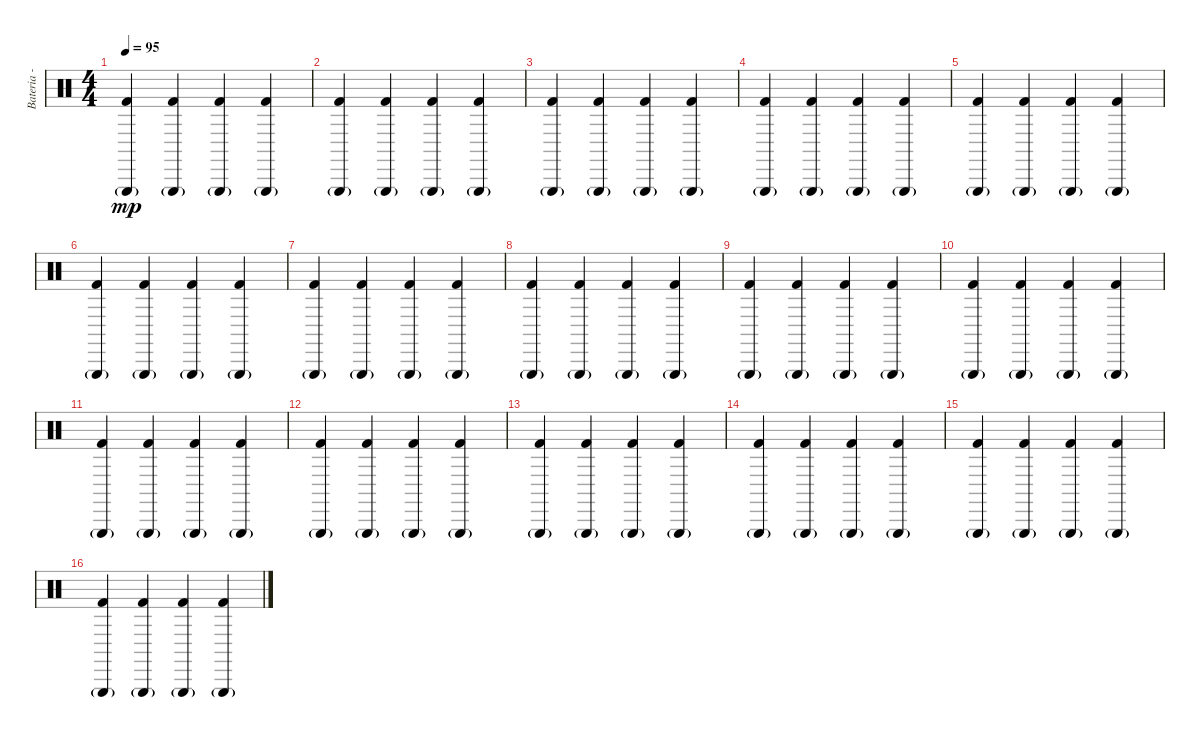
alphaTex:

\track ("Bateria - Alfonso André" "Bateria - ") {instrument percussion}
\staff {score}
\articulation defaults
\ts (4 4)
\tempo 95
\clef neutral
\ks c
("Triangle (hit)"{g} "Kick (hit) 2").4{dy mp} ("Triangle (hit)"{g} "Kick (hit) 2").4 ("Triangle (hit)"{g} "Kick (hit) 2").4 ("Triangle (hit)"{g} "Kick (hit) 2").4 |
("Triangle (hit)"{g} "Kick (hit) 2").4 ("Triangle (hit)"{g} "Kick (hit) 2").4 ("Triangle (hit)"{g} "Kick (hit) 2").4 ("Triangle (hit)"{g} "Kick (hit) 2").4 |
("Triangle (hit)"{g} "Kick (hit) 2").4 ("Triangle (hit)"{g} "Kick (hit) 2").4 ("Triangle (hit)"{g} "Kick (hit) 2").4 ("Triangle (hit)"{g} "Kick (hit) 2").4 |
("Triangle (hit)"{g} "Kick (hit) 2").4 ("Triangle (hit)"{g} "Kick (hit) 2").4 ("Triangle (hit)"{g} "Kick (hit) 2").4 ("Triangle (hit)"{g} "Kick (hit) 2").4 |
("Triangle (hit)"{g} "Kick (hit) 2").4 ("Triangle (hit)"{g} "Kick (hit) 2").4 ("Triangle (hit)"{g} "Kick (hit) 2").4 ("Triangle (hit)"{g} "Kick (hit) 2").4 |
("Triangle (hit)"{g} "Kick (hit) 2").4 ("Triangle (hit)"{g} "Kick (hit) 2").4 ("Triangle (hit)"{g} "Kick (hit) 2").4 ("Triangle (hit)"{g} "Kick (hit) 2").4 |
("Triangle (hit)"{g} "Kick (hit) 2").4 ("Triangle (hit)"{g} "Kick (hit) 2").4 ("Triangle (hit)"{g} "Kick (hit) 2").4 ("Triangle (hit)"{g} "Kick (hit) 2").4 |
("Triangle (hit)"{g} "Kick (hit) 2").4 ("Triangle (hit)"{g} "Kick (hit) 2").4 ("Triangle (hit)"{g} "Kick (hit) 2").4 ("Triangle (hit)"{g} "Kick (hit) 2").4 |
("Triangle (hit)"{g} "Kick (hit) 2").4 ("Triangle (hit)"{g} "Kick (hit) 2").4 ("Triangle (hit)"{g} "Kick (hit) 2").4 ("Triangle (hit)"{g} "Kick (hit) 2").4 |
("Triangle (hit)"{g} "Kick (hit) 2").4 ("Triangle (hit)"{g} "Kick (hit) 2").4 ("Triangle (hit)"{g} "Kick (hit) 2").4 ("Triangle (hit)"{g} "Kick (hit) 2").4 |
("Triangle (hit)"{g} "Kick (hit) 2").4 ("Triangle (hit)"{g} "Kick (hit) 2").4 ("Triangle (hit)"{g} "Kick (hit) 2").4 ("Triangle (hit)"{g} "Kick (hit) 2").4 |
("Triangle (hit)"{g} "Kick (hit) 2").4 ("Triangle (hit)"{g} "Kick (hit) 2").4 ("Triangle (hit)"{g} "Kick (hit) 2").4 ("Triangle (hit)"{g} "Kick (hit) 2").4 |
("Triangle (hit)"{g} "Kick (hit) 2").4 ("Triangle (hit)"{g} "Kick (hit) 2").4 ("Triangle (hit)"{g} "Kick (hit) 2").4 ("Triangle (hit)"{g} "Kick (hit) 2").4 |
("Triangle (hit)"{g} "Kick (hit) 2").4 ("Triangle (hit)"{g} "Kick (hit) 2").4 ("Triangle (hit)"{g} "Kick (hit) 2").4 ("Triangle (hit)"{g} "Kick (hit) 2").4 |
("Triangle (hit)"{g} "Kick (hit) 2").4 ("Triangle (hit)"{g} "Kick (hit) 2").4 ("Triangle (hit)"{g} "Kick (hit) 2").4 ("Triangle (hit)"{g} "Kick (hit) 2").4 |
("Triangle (hit)"{g} "Kick (hit) 2").4 ("Triangle (hit)"{g} "Kick (hit) 2").4 ("Triangle (hit)"{g} "Kick (hit) 2").4 ("Triangle (hit)"{g} "Kick (hit) 2").4
